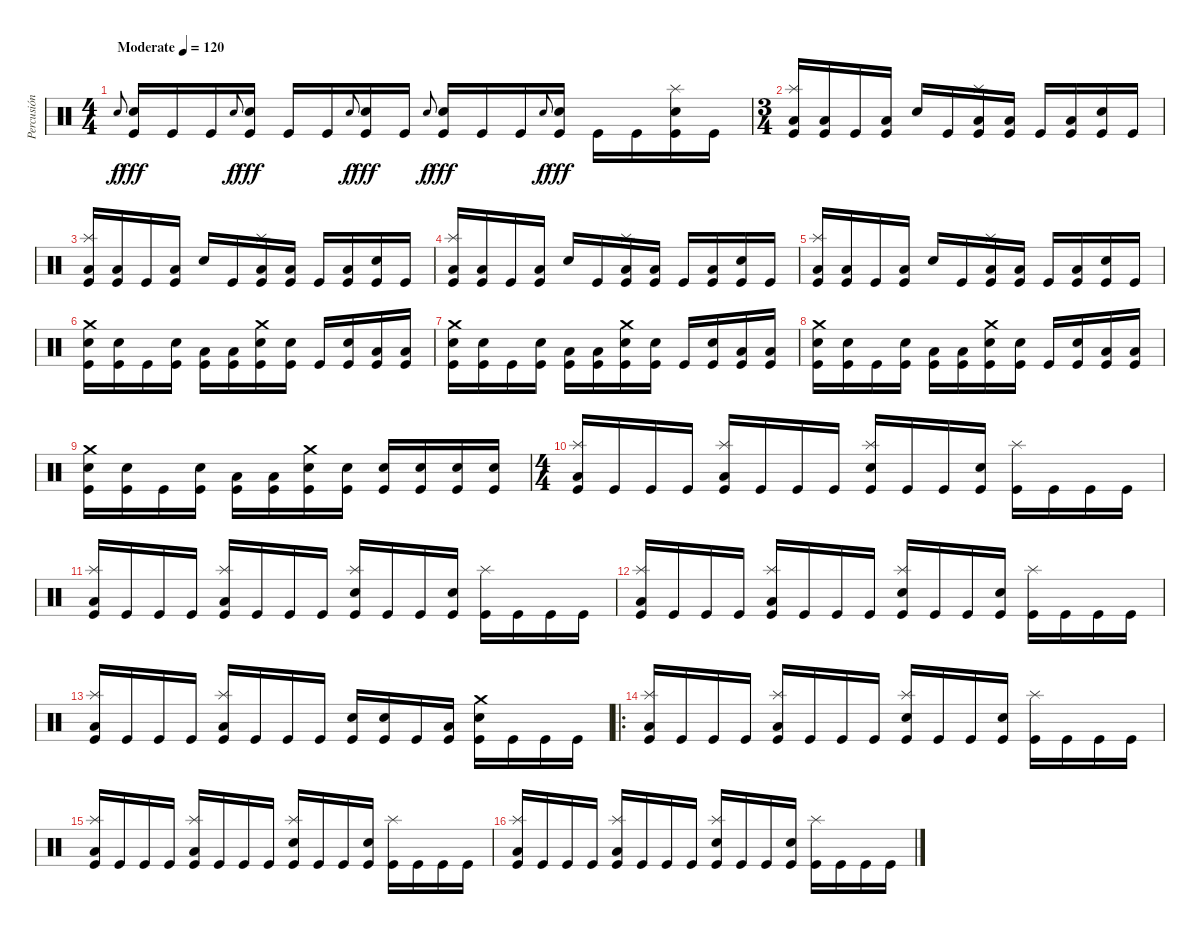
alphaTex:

\track ("Percusión" "Percusión") {instrument percussion}
\staff {score}
\articulation defaults
\ts (4 4)
\tempo (120 "Moderate")
\clef neutral
\ks c "Electric Snare (hit)".8{gr onbeat dy f}
("Electric Snare (hit)" "Kick (hit)").16{dy fff} "Kick (hit)".16 "Kick (hit)".16 "Electric Snare (hit)".8{gr onbeat dy f} ("Electric Snare (hit)" "Kick (hit)").16{dy fff} "Kick (hit)".16 "Kick (hit)".16 "Electric Snare (hit)".8{gr onbeat dy f} ("Electric Snare (hit)" "Kick (hit)").16{dy fff} "Kick (hit)".16 "Electric Snare (hit)".8{gr onbeat dy f} ("Electric Snare (hit)" "Kick (hit)").16{dy fff} "Kick (hit)".16 "Kick (hit)".16 "Electric Snare (hit)".8{gr onbeat dy f} ("Electric Snare (hit)" "Kick (hit)").16{dy fff} "Kick (hit)".16 "Kick (hit)".16 ("Splash (hit)" "Electric Snare (hit)" "Kick (hit)").16 "Kick (hit)".16 |
\ts (3 4)
("Splash (hit)" "Low Floor Tom (hit)" "Kick (hit)").16 ("Low Floor Tom (hit)" "Kick (hit)").16 "Kick (hit)".16 ("Low Floor Tom (hit)" "Kick (hit)").16 "Snare (hit) 2".16 "Kick (hit)".16 ("Splash (hit)" "Low Floor Tom (hit)" "Kick (hit)").16 ("Low Floor Tom (hit)" "Kick (hit)").16 "Kick (hit)".16 ("Low Floor Tom (hit)" "Kick (hit)").16 ("Snare (hit) 2" "Kick (hit)").16 "Kick (hit)".16 |
("Splash (hit)" "Low Floor Tom (hit)" "Kick (hit)").16 ("Low Floor Tom (hit)" "Kick (hit)").16 "Kick (hit)".16 ("Low Floor Tom (hit)" "Kick (hit)").16 "Snare (hit) 2".16 "Kick (hit)".16 ("Splash (hit)" "Low Floor Tom (hit)" "Kick (hit)").16 ("Low Floor Tom (hit)" "Kick (hit)").16 "Kick (hit)".16 ("Low Floor Tom (hit)" "Kick (hit)").16 ("Snare (hit) 2" "Kick (hit)").16 "Kick (hit)".16 |
("Splash (hit)" "Low Floor Tom (hit)" "Kick (hit)").16 ("Low Floor Tom (hit)" "Kick (hit)").16 "Kick (hit)".16 ("Low Floor Tom (hit)" "Kick (hit)").16 "Snare (hit) 2".16 "Kick (hit)".16 ("Splash (hit)" "Low Floor Tom (hit)" "Kick (hit)").16 ("Low Floor Tom (hit)" "Kick (hit)").16 "Kick (hit)".16 ("Low Floor Tom (hit)" "Kick (hit)").16 ("Snare (hit) 2" "Kick (hit)").16 "Kick (hit)".16 |
("Splash (hit)" "Low Floor Tom (hit)" "Kick (hit)").16 ("Low Floor Tom (hit)" "Kick (hit)").16 "Kick (hit)".16 ("Low Floor Tom (hit)" "Kick (hit)").16 "Snare (hit) 2".16 "Kick (hit)".16 ("Splash (hit)" "Low Floor Tom (hit)" "Kick (hit)").16 ("Low Floor Tom (hit)" "Kick (hit)").16 "Kick (hit)".16 ("Low Floor Tom (hit)" "Kick (hit)").16 ("Snare (hit) 2" "Kick (hit)").16 "Kick (hit)".16 |
("Crash medium (hit)" "Snare (hit) 2" "Kick (hit)").16 ("Snare (hit) 2" "Kick (hit)").16 "Kick (hit)".16 ("Snare (hit) 2" "Kick (hit)").16 ("Low Floor Tom (hit)" "Kick (hit)").16 ("Low Floor Tom (hit)" "Kick (hit)").16 ("Crash medium (hit)" "Snare (hit) 2" "Kick (hit)").16 ("Snare (hit) 2" "Kick (hit)").16 "Kick (hit)".16 ("Snare (hit) 2" "Kick (hit)").16 ("Low Floor Tom (hit)" "Kick (hit)").16 ("Low Floor Tom (hit)" "Kick (hit)").16 |
("Crash medium (hit)" "Snare (hit) 2" "Kick (hit)").16 ("Snare (hit) 2" "Kick (hit)").16 "Kick (hit)".16 ("Snare (hit) 2" "Kick (hit)").16 ("Low Floor Tom (hit)" "Kick (hit)").16 ("Low Floor Tom (hit)" "Kick (hit)").16 ("Crash medium (hit)" "Snare (hit) 2" "Kick (hit)").16 ("Snare (hit) 2" "Kick (hit)").16 "Kick (hit)".16 ("Snare (hit) 2" "Kick (hit)").16 ("Low Floor Tom (hit)" "Kick (hit)").16 ("Low Floor Tom (hit)" "Kick (hit)").16 |
("Crash medium (hit)" "Snare (hit) 2" "Kick (hit)").16 ("Snare (hit) 2" "Kick (hit)").16 "Kick (hit)".16 ("Snare (hit) 2" "Kick (hit)").16 ("Low Floor Tom (hit)" "Kick (hit)").16 ("Low Floor Tom (hit)" "Kick (hit)").16 ("Crash medium (hit)" "Snare (hit) 2" "Kick (hit)").16 ("Snare (hit) 2" "Kick (hit)").16 "Kick (hit)".16 ("Snare (hit) 2" "Kick (hit)").16 ("Low Floor Tom (hit)" "Kick (hit)").16 ("Low Floor Tom (hit)" "Kick (hit)").16 |
("Crash medium (hit)" "Snare (hit) 2" "Kick (hit)").16 ("Snare (hit) 2" "Kick (hit)").16 "Kick (hit)".16 ("Snare (hit) 2" "Kick (hit)").16 ("Low Floor Tom (hit)" "Kick (hit)").16 ("Low Floor Tom (hit)" "Kick (hit)").16 ("Crash medium (hit)" "Snare (hit) 2" "Kick (hit)").16 ("Snare (hit) 2" "Kick (hit)").16 ("Snare (hit) 2" "Kick (hit)").16 ("Snare (hit) 2" "Kick (hit)").16 ("Snare (hit) 2" "Kick (hit)").16 ("Snare (hit) 2" "Kick (hit)").16 |
\ts (4 4)
("Splash (hit)" "Low Floor Tom (hit)" "Kick (hit)").16 "Kick (hit)".16 "Kick (hit)".16 "Kick (hit)".16 ("Splash (hit)" "Low Floor Tom (hit)" "Kick (hit)").16 "Kick (hit)".16 "Kick (hit)".16 "Kick (hit)".16 ("Splash (hit)" "Snare (hit) 2" "Kick (hit)").16 "Kick (hit)".16 "Kick (hit)".16 ("Snare (hit) 2" "Kick (hit)").16 ("Splash (hit)" "Kick (hit)").16 "Kick (hit)".16 "Kick (hit)".16 "Kick (hit)".16 |
("Splash (hit)" "Low Floor Tom (hit)" "Kick (hit)").16 "Kick (hit)".16 "Kick (hit)".16 "Kick (hit)".16 ("Splash (hit)" "Low Floor Tom (hit)" "Kick (hit)").16 "Kick (hit)".16 "Kick (hit)".16 "Kick (hit)".16 ("Splash (hit)" "Snare (hit) 2" "Kick (hit)").16 "Kick (hit)".16 "Kick (hit)".16 ("Snare (hit) 2" "Kick (hit)").16 ("Splash (hit)" "Kick (hit)").16 "Kick (hit)".16 "Kick (hit)".16 "Kick (hit)".16 |
("Splash (hit)" "Low Floor Tom (hit)" "Kick (hit)").16 "Kick (hit)".16 "Kick (hit)".16 "Kick (hit)".16 ("Splash (hit)" "Low Floor Tom (hit)" "Kick (hit)").16 "Kick (hit)".16 "Kick (hit)".16 "Kick (hit)".16 ("Splash (hit)" "Snare (hit) 2" "Kick (hit)").16 "Kick (hit)".16 "Kick (hit)".16 ("Snare (hit) 2" "Kick (hit)").16 ("Splash (hit)" "Kick (hit)").16 "Kick (hit)".16 "Kick (hit)".16 "Kick (hit)".16 |
("Splash (hit)" "Low Floor Tom (hit)" "Kick (hit)").16 "Kick (hit)".16 "Kick (hit)".16 "Kick (hit)".16 ("Splash (hit)" "Low Floor Tom (hit)" "Kick (hit)").16 "Kick (hit)".16 "Kick (hit)".16 "Kick (hit)".16 ("Snare (hit) 2" "Kick (hit)").16 ("Snare (hit) 2" "Kick (hit)").16 "Kick (hit)".16 ("Low Floor Tom (hit)" "Kick (hit)").16 ("Crash medium (hit)" "Snare (hit) 2" "Kick (hit)").16 "Kick (hit)".16 "Kick (hit)".16 "Kick (hit)".16 |
\ro
("Splash (hit)" "Low Floor Tom (hit)" "Kick (hit)").16 "Kick (hit)".16 "Kick (hit)".16 "Kick (hit)".16 ("Splash (hit)" "Low Floor Tom (hit)" "Kick (hit)").16 "Kick (hit)".16 "Kick (hit)".16 "Kick (hit)".16 ("Splash (hit)" "Snare (hit) 2" "Kick (hit)").16 "Kick (hit)".16 "Kick (hit)".16 ("Snare (hit) 2" "Kick (hit)").16 ("Splash (hit)" "Kick (hit)").16 "Kick (hit)".16 "Kick (hit)".16 "Kick (hit)".16 |
("Splash (hit)" "Low Floor Tom (hit)" "Kick (hit)").16 "Kick (hit)".16 "Kick (hit)".16 "Kick (hit)".16 ("Splash (hit)" "Low Floor Tom (hit)" "Kick (hit)").16 "Kick (hit)".16 "Kick (hit)".16 "Kick (hit)".16 ("Splash (hit)" "Snare (hit) 2" "Kick (hit)").16 "Kick (hit)".16 "Kick (hit)".16 ("Snare (hit) 2" "Kick (hit)").16 ("Splash (hit)" "Kick (hit)").16 "Kick (hit)".16 "Kick (hit)".16 "Kick (hit)".16 |
("Splash (hit)" "Low Floor Tom (hit)" "Kick (hit)").16 "Kick (hit)".16 "Kick (hit)".16 "Kick (hit)".16 ("Splash (hit)" "Low Floor Tom (hit)" "Kick (hit)").16 "Kick (hit)".16 "Kick (hit)".16 "Kick (hit)".16 ("Splash (hit)" "Snare (hit) 2" "Kick (hit)").16 "Kick (hit)".16 "Kick (hit)".16 ("Snare (hit) 2" "Kick (hit)").16 ("Splash (hit)" "Kick (hit)").16 "Kick (hit)".16 "Kick (hit)".16 "Kick (hit)".16
